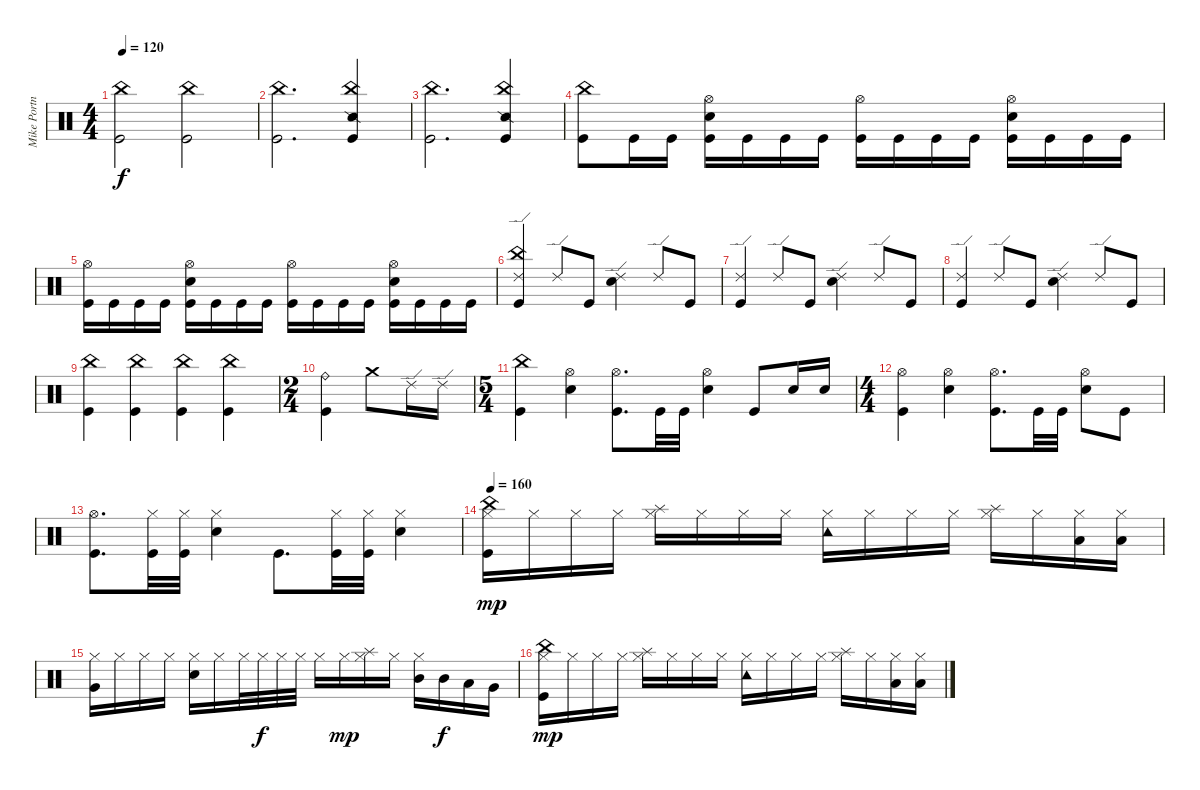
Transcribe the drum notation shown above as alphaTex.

\track ("Mike Portnoy Drums" "Mike Portn") {instrument percussion}
\staff {score}
\articulation defaults
\ts (4 4)
\tempo 120
\clef neutral
\ks c
("Kick (hit)" "China (hit)").2{dy f} ("Kick (hit)" "China (hit)").2 |
("Kick (hit)" "China (hit)").2{d} ("Kick (hit)" "China (hit)" "Snare (side stick) 2").4 |
("Kick (hit)" "China (hit)").2{d} ("Kick (hit)" "China (hit)" "Snare (side stick) 2").4 |
("Kick (hit)" "China (hit)").8 "Kick (hit)".16 "Kick (hit)".16 ("Kick (hit)" "Snare (hit) 2" "Hi-Hat (open)").16 "Kick (hit)".16 "Kick (hit)".16 "Kick (hit)".16 ("Kick (hit)" "Hi-Hat (open)").16 "Kick (hit)".16 "Kick (hit)".16 "Kick (hit)".16 ("Kick (hit)" "Snare (hit) 2" "Hi-Hat (open)").16 "Kick (hit)".16 "Kick (hit)".16 "Kick (hit)".16 |
("Kick (hit)" "Hi-Hat (open)").16 "Kick (hit)".16 "Kick (hit)".16 "Kick (hit)".16 ("Kick (hit)" "Snare (hit) 2" "Hi-Hat (open)").16 "Kick (hit)".16 "Kick (hit)".16 "Kick (hit)".16 ("Kick (hit)" "Hi-Hat (open)").16 "Kick (hit)".16 "Kick (hit)".16 "Kick (hit)".16 ("Kick (hit)" "Snare (hit) 2" "Hi-Hat (open)").16 "Kick (hit)".16 "Kick (hit)".16 "Kick (hit)".16 |
("Kick (hit)" "China (hit)" "Ride (edge) 2").4 "Ride (edge) 2".8 "Kick (hit)".8 ("Snare (hit) 2" "Ride (edge) 2").4 "Ride (edge) 2".8 "Kick (hit)".8 |
("Kick (hit)" "Ride (edge) 2").4 "Ride (edge) 2".8 "Kick (hit)".8 ("Snare (hit) 2" "Ride (edge) 2").4 "Ride (edge) 2".8 "Kick (hit)".8 |
("Kick (hit)" "Ride (edge) 2").4 "Ride (edge) 2".8 "Kick (hit)".8 ("Snare (hit) 2" "Ride (edge) 2").4 "Ride (edge) 2".8 "Kick (hit)".8 |
("Kick (hit)" "China (hit)").4 ("Kick (hit)" "China (hit)").4 ("Kick (hit)" "China (hit)").4 ("Kick (hit)" "China (hit)").4 |
\ts (2 4)
("Kick (hit)" "Ride (bell)").4 "Crash medium (hit)".8 "Ride (edge) 2".16 "Ride (edge) 2".16 |
\ts (5 4)
("Kick (hit)" "China (hit)").4 ("Snare (hit) 2" "Hi-Hat (open)").4 ("Kick (hit)" "Hi-Hat (open)").8{d} "Kick (hit)".32 "Kick (hit)".32 ("Snare (hit) 2" "Hi-Hat (open)").4 "Kick (hit)".8 "Snare (hit) 2".16 "Snare (hit) 2".16 |
\ts (4 4)
("Kick (hit)" "Hi-Hat (open)").4 ("Snare (hit) 2" "Hi-Hat (open)").4 ("Kick (hit)" "Hi-Hat (open)").8{d} "Kick (hit)".32 "Kick (hit)".32 ("Snare (hit) 2" "Hi-Hat (open)").8 "Kick (hit)".8 |
("Kick (hit)" "Hi-Hat (open)").8{d} ("Kick (hit)" "Hi-Hat (closed)").32 ("Kick (hit)" "Hi-Hat (closed)").32 ("Snare (hit) 2" "Hi-Hat (closed)").4 "Kick (hit)".8{d} ("Kick (hit)" "Hi-Hat (closed)").32 ("Kick (hit)" "Hi-Hat (closed)").32 ("Snare (hit) 2" "Hi-Hat (closed)").4 |
\tempo 160
("Hi-Hat (closed)" "Kick (hit)" "China (hit)").16{dy mp} "Hi-Hat (closed)".16 "Hi-Hat (closed)".16 "Hi-Hat (closed)".16 ("Hi-Hat (closed)" "Splash (hit)").16 "Hi-Hat (closed)".16 "Hi-Hat (closed)".16 "Hi-Hat (closed)".16 ("Hi-Hat (closed)" "Tambourine (hit)").16 "Hi-Hat (closed)".16 "Hi-Hat (closed)".16 "Hi-Hat (closed)".16 ("Hi-Hat (closed)" "Splash (hit)").16 "Hi-Hat (closed)".16 ("Hi-Hat (closed)" "Low Tom (hit)").16 ("Hi-Hat (closed)" "Low Tom (hit)").16 |
("Hi-Hat (closed)" "Very Low Tom (hit)").16 "Hi-Hat (closed)".16 "Hi-Hat (closed)".16 "Hi-Hat (closed)".16 ("Hi-Hat (closed)" "Snare (hit) 2").16 "Hi-Hat (closed)".16 "Hi-Hat (closed)".32 "Hi-Hat (closed)".32{dy f} "Hi-Hat (closed)".32 "Hi-Hat (closed)".32 "Hi-Hat (closed)".16 "Hi-Hat (closed)".16{dy mp} ("Hi-Hat (closed)" "Splash (hit)").16 "Hi-Hat (closed)".16 ("Hi-Hat (closed)" "Mid Tom (hit)").16 "Mid Tom (hit)".16{dy f} "Low Tom (hit)".16 "Very Low Tom (hit)".16 |
("Hi-Hat (closed)" "Kick (hit)" "China (hit)").16{dy mp} "Hi-Hat (closed)".16 "Hi-Hat (closed)".16 "Hi-Hat (closed)".16 ("Hi-Hat (closed)" "Splash (hit)").16 "Hi-Hat (closed)".16 "Hi-Hat (closed)".16 "Hi-Hat (closed)".16 ("Hi-Hat (closed)" "Tambourine (hit)").16 "Hi-Hat (closed)".16 "Hi-Hat (closed)".16 "Hi-Hat (closed)".16 ("Hi-Hat (closed)" "Splash (hit)").16 "Hi-Hat (closed)".16 ("Hi-Hat (closed)" "Low Tom (hit)").16 ("Hi-Hat (closed)" "Low Tom (hit)").16
